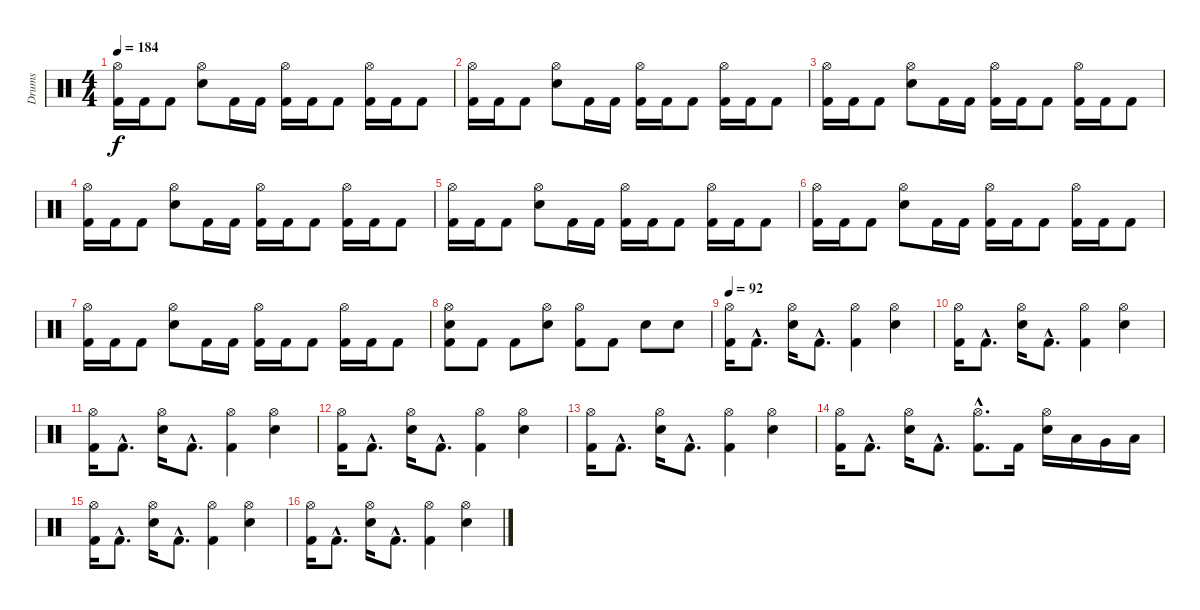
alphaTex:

\track ("Drums" "Drums") {instrument percussion}
\staff {score}
\articulation defaults
\ts (4 4)
\tempo 184
\clef neutral
\ks c
("Hi-Hat (open)" "Kick (hit) 2").16{dy f} "Kick (hit) 2".16 "Kick (hit) 2".8 ("Hi-Hat (open)" "Electric Snare (hit)").8 "Kick (hit) 2".16 "Kick (hit) 2".16 ("Hi-Hat (open)" "Kick (hit) 2").16 "Kick (hit) 2".16 "Kick (hit) 2".8 ("Hi-Hat (open)" "Kick (hit) 2").16 "Kick (hit) 2".16 "Kick (hit) 2".8 |
("Hi-Hat (open)" "Kick (hit) 2").16 "Kick (hit) 2".16 "Kick (hit) 2".8 ("Hi-Hat (open)" "Electric Snare (hit)").8 "Kick (hit) 2".16 "Kick (hit) 2".16 ("Hi-Hat (open)" "Kick (hit) 2").16 "Kick (hit) 2".16 "Kick (hit) 2".8 ("Hi-Hat (open)" "Kick (hit) 2").16 "Kick (hit) 2".16 "Kick (hit) 2".8 |
("Hi-Hat (open)" "Kick (hit) 2").16 "Kick (hit) 2".16 "Kick (hit) 2".8 ("Hi-Hat (open)" "Electric Snare (hit)").8 "Kick (hit) 2".16 "Kick (hit) 2".16 ("Hi-Hat (open)" "Kick (hit) 2").16 "Kick (hit) 2".16 "Kick (hit) 2".8 ("Hi-Hat (open)" "Kick (hit) 2").16 "Kick (hit) 2".16 "Kick (hit) 2".8 |
("Hi-Hat (open)" "Kick (hit) 2").16 "Kick (hit) 2".16 "Kick (hit) 2".8 ("Hi-Hat (open)" "Electric Snare (hit)").8 "Kick (hit) 2".16 "Kick (hit) 2".16 ("Hi-Hat (open)" "Kick (hit) 2").16 "Kick (hit) 2".16 "Kick (hit) 2".8 ("Hi-Hat (open)" "Kick (hit) 2").16 "Kick (hit) 2".16 "Kick (hit) 2".8 |
("Hi-Hat (open)" "Kick (hit) 2").16 "Kick (hit) 2".16 "Kick (hit) 2".8 ("Hi-Hat (open)" "Electric Snare (hit)").8 "Kick (hit) 2".16 "Kick (hit) 2".16 ("Hi-Hat (open)" "Kick (hit) 2").16 "Kick (hit) 2".16 "Kick (hit) 2".8 ("Hi-Hat (open)" "Kick (hit) 2").16 "Kick (hit) 2".16 "Kick (hit) 2".8 |
("Hi-Hat (open)" "Kick (hit) 2").16 "Kick (hit) 2".16 "Kick (hit) 2".8 ("Hi-Hat (open)" "Electric Snare (hit)").8 "Kick (hit) 2".16 "Kick (hit) 2".16 ("Hi-Hat (open)" "Kick (hit) 2").16 "Kick (hit) 2".16 "Kick (hit) 2".8 ("Hi-Hat (open)" "Kick (hit) 2").16 "Kick (hit) 2".16 "Kick (hit) 2".8 |
("Hi-Hat (open)" "Kick (hit) 2").16 "Kick (hit) 2".16 "Kick (hit) 2".8 ("Hi-Hat (open)" "Electric Snare (hit)").8 "Kick (hit) 2".16 "Kick (hit) 2".16 ("Hi-Hat (open)" "Kick (hit) 2").16 "Kick (hit) 2".16 "Kick (hit) 2".8 ("Hi-Hat (open)" "Kick (hit) 2").16 "Kick (hit) 2".16 "Kick (hit) 2".8 |
("Hi-Hat (open)" "Electric Snare (hit)" "Kick (hit) 2").8 "Kick (hit) 2".8 "Kick (hit) 2".8 ("Hi-Hat (open)" "Electric Snare (hit)").8 ("Hi-Hat (open)" "Kick (hit) 2").8 "Kick (hit) 2".8 "Electric Snare (hit)".8 "Electric Snare (hit)".8 |
\tempo 92
("Hi-Hat (open)" "Kick (hit) 2").16 "Kick (hit) 2"{hac}.8{d} ("Hi-Hat (open)" "Electric Snare (hit)").16 "Kick (hit) 2"{hac}.8{d} ("Hi-Hat (open)" "Kick (hit) 2").4 ("Hi-Hat (open)" "Electric Snare (hit)").4 |
("Hi-Hat (open)" "Kick (hit) 2").16 "Kick (hit) 2"{hac}.8{d} ("Hi-Hat (open)" "Electric Snare (hit)").16 "Kick (hit) 2"{hac}.8{d} ("Hi-Hat (open)" "Kick (hit) 2").4 ("Hi-Hat (open)" "Electric Snare (hit)").4 |
("Hi-Hat (open)" "Kick (hit) 2").16 "Kick (hit) 2"{hac}.8{d} ("Hi-Hat (open)" "Electric Snare (hit)").16 "Kick (hit) 2"{hac}.8{d} ("Hi-Hat (open)" "Kick (hit) 2").4 ("Hi-Hat (open)" "Electric Snare (hit)").4 |
("Hi-Hat (open)" "Kick (hit) 2").16 "Kick (hit) 2"{hac}.8{d} ("Hi-Hat (open)" "Electric Snare (hit)").16 "Kick (hit) 2"{hac}.8{d} ("Hi-Hat (open)" "Kick (hit) 2").4 ("Hi-Hat (open)" "Electric Snare (hit)").4 |
("Hi-Hat (open)" "Kick (hit) 2").16 "Kick (hit) 2"{hac}.8{d} ("Hi-Hat (open)" "Electric Snare (hit)").16 "Kick (hit) 2"{hac}.8{d} ("Hi-Hat (open)" "Kick (hit) 2").4 ("Hi-Hat (open)" "Electric Snare (hit)").4 |
("Hi-Hat (open)" "Kick (hit) 2").16 "Kick (hit) 2"{hac}.8{d} ("Hi-Hat (open)" "Electric Snare (hit)").16 "Kick (hit) 2"{hac}.8{d} ("Hi-Hat (open)"{hac} "Kick (hit) 2"{hac}).8{d} "Kick (hit) 2".16 ("Hi-Hat (open)" "Electric Snare (hit)").16 "Low Tom (hit)".16 "Very Low Tom (hit)".16 "Low Floor Tom (hit)".16 |
("Hi-Hat (open)" "Kick (hit) 2").16 "Kick (hit) 2"{hac}.8{d} ("Hi-Hat (open)" "Electric Snare (hit)").16 "Kick (hit) 2"{hac}.8{d} ("Hi-Hat (open)" "Kick (hit) 2").4 ("Hi-Hat (open)" "Electric Snare (hit)").4 |
("Hi-Hat (open)" "Kick (hit) 2").16 "Kick (hit) 2"{hac}.8{d} ("Hi-Hat (open)" "Electric Snare (hit)").16 "Kick (hit) 2"{hac}.8{d} ("Hi-Hat (open)" "Kick (hit) 2").4 ("Hi-Hat (open)" "Electric Snare (hit)").4
